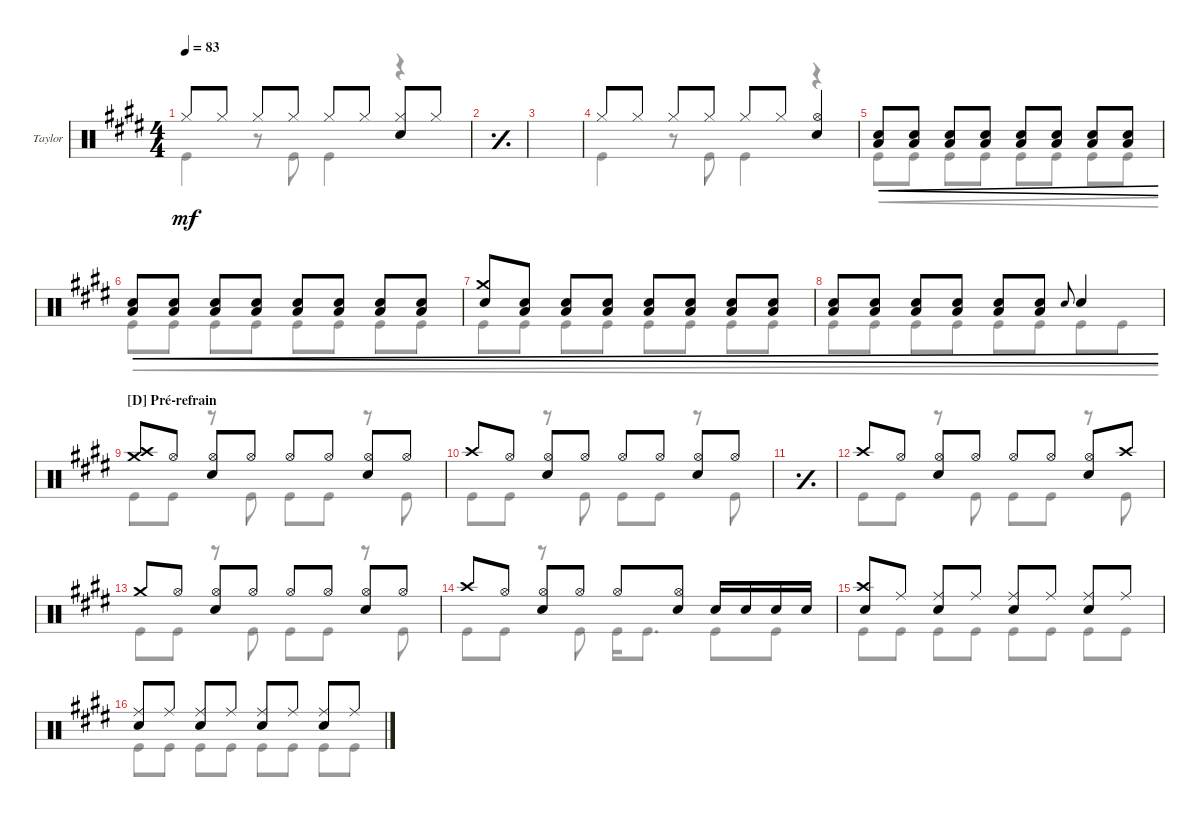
\defaultSystemsLayout 4
\bracketExtendMode groupsimilarinstruments
\firstSystemTrackNameOrientation horizontal
\otherSystemsTrackNameOrientation horizontal
\track ("Drums - Taylor Hawkins" "Taylor") {instrument percussion}
\staff {score}
\articulation defaults
\voice
\ts (4 4)
\tempo 83
\clef neutral
\ks e "Hi-Hat (closed)".8{dy mf} "Hi-Hat (closed)".8 "Hi-Hat (closed)".8 "Hi-Hat (closed)".8 "Hi-Hat (closed)".8 "Hi-Hat (closed)".8
("Hi-Hat (closed)" "Snare (hit) 2").8 "Hi-Hat (closed)".8 |
\simile simple
|
|
\simile none "Hi-Hat (closed)".8 "Hi-Hat (closed)".8 "Hi-Hat (closed)".8 "Hi-Hat (closed)".8 "Hi-Hat (closed)".8 "Hi-Hat (closed)".8
("Hi-Hat (open)" "Snare (hit) 2").4 |
("Low Tom (hit)" "Snare (hit) 2").8{cre} ("Low Tom (hit)" "Snare (hit) 2").8{cre} ("Low Tom (hit)" "Snare (hit) 2").8{cre} ("Low Tom (hit)" "Snare (hit) 2").8{cre} ("Low Tom (hit)" "Snare (hit) 2").8{cre} ("Low Tom (hit)" "Snare (hit) 2").8{cre} ("Low Tom (hit)" "Snare (hit) 2").8{cre} ("Low Tom (hit)" "Snare (hit) 2").8{cre} |
("Low Tom (hit)" "Snare (hit) 2").8{cre} ("Low Tom (hit)" "Snare (hit) 2").8{cre} ("Low Tom (hit)" "Snare (hit) 2").8{cre} ("Low Tom (hit)" "Snare (hit) 2").8{cre} ("Low Tom (hit)" "Snare (hit) 2").8{cre} ("Low Tom (hit)" "Snare (hit) 2").8{cre} ("Low Tom (hit)" "Snare (hit) 2").8{cre} ("Low Tom (hit)" "Snare (hit) 2").8{cre} |
("Snare (hit) 2" "Crash medium (hit)").8{cre} ("Low Tom (hit)" "Snare (hit) 2").8{cre} ("Low Tom (hit)" "Snare (hit) 2").8{cre} ("Low Tom (hit)" "Snare (hit) 2").8{cre} ("Low Tom (hit)" "Snare (hit) 2").8{cre} ("Low Tom (hit)" "Snare (hit) 2").8{cre} ("Low Tom (hit)" "Snare (hit) 2").8{cre} ("Low Tom (hit)" "Snare (hit) 2").8{cre} |
("Low Tom (hit)" "Snare (hit) 2").8{cre} ("Low Tom (hit)" "Snare (hit) 2").8{cre} ("Low Tom (hit)" "Snare (hit) 2").8{cre} ("Low Tom (hit)" "Snare (hit) 2").8{cre} ("Low Tom (hit)" "Snare (hit) 2").8{cre} ("Low Tom (hit)" "Snare (hit) 2").8{cre} "Snare (hit) 2".8{gr onbeat cre} "Snare (hit) 2".4{cre} |
\section ("D" "Pré-refrain")
("Crash high (hit)" "Crash medium (hit)").8 "Hi-Hat (open)".8 ("Hi-Hat (open)" "Snare (hit) 2").8 "Hi-Hat (open)".8 "Hi-Hat (open)".8 "Hi-Hat (open)".8 ("Hi-Hat (open)" "Snare (hit) 2").8 "Hi-Hat (open)".8 |
"Crash high (hit)".8 "Hi-Hat (open)".8 ("Hi-Hat (open)" "Snare (hit) 2").8 "Hi-Hat (open)".8 "Hi-Hat (open)".8 "Hi-Hat (open)".8 ("Hi-Hat (open)" "Snare (hit) 2").8 "Hi-Hat (open)".8 |
\simile simple
|
\simile none "Crash high (hit)".8 "Hi-Hat (open)".8
("Hi-Hat (open)" "Snare (hit) 2").8 "Hi-Hat (open)".8 "Hi-Hat (open)".8 "Hi-Hat (open)".8 ("Hi-Hat (open)" "Snare (hit) 2").8 "Crash high (hit)".8 |
"Crash medium (hit)".8 "Hi-Hat (open)".8 ("Hi-Hat (open)" "Snare (hit) 2").8 "Hi-Hat (open)".8 "Hi-Hat (open)".8 "Hi-Hat (open)".8 ("Hi-Hat (open)" "Snare (hit) 2").8 "Hi-Hat (open)".8 |
"Crash high (hit)".8 "Hi-Hat (open)".8 ("Hi-Hat (open)" "Snare (hit) 2").8 "Hi-Hat (open)".8 "Hi-Hat (open)".8 ("Hi-Hat (open)" "Snare (hit) 2").8 "Snare (hit) 2".16 "Snare (hit) 2".16 "Snare (hit) 2".16 "Snare (hit) 2".16 |
("Snare (hit) 2" "Crash high (hit)").8 "Ride (middle)".8 ("Snare (hit) 2" "Ride (middle)").8 "Ride (middle)".8 ("Snare (hit) 2" "Ride (middle)").8 "Ride (middle)".8 ("Snare (hit) 2" "Ride (middle)").8 "Ride (middle)".8 |
("Snare (hit) 2" "Ride (middle)").8 "Ride (middle)".8 ("Snare (hit) 2" "Ride (middle)").8 "Ride (middle)".8 ("Snare (hit) 2" "Ride (middle)").8 "Ride (middle)".8 ("Snare (hit) 2" "Ride (middle)").8 "Ride (middle)".8
\voice
\clef neutral
\ottava regular
\simile none
\ks e "Kick (hit)".4{dy mf}
r.8 "Kick (hit)".8 "Kick (hit)".4 r.4 |
\simile simple
|
|
\simile none "Kick (hit)".4
r.8 "Kick (hit)".8 "Kick (hit)".4 r.4 |
"Kick (hit)".8{cre} "Kick (hit)".8{cre} "Kick (hit)".8{cre} "Kick (hit)".8{cre} "Kick (hit)".8{cre} "Kick (hit)".8{cre} "Kick (hit)".8{cre} "Kick (hit)".8{cre} |
"Kick (hit)".8{cre} "Kick (hit)".8{cre} "Kick (hit)".8{cre} "Kick (hit)".8{cre} "Kick (hit)".8{cre} "Kick (hit)".8{cre} "Kick (hit)".8{cre} "Kick (hit)".8{cre} |
"Kick (hit)".8{cre} "Kick (hit)".8{cre} "Kick (hit)".8{cre} "Kick (hit)".8{cre} "Kick (hit)".8{cre} "Kick (hit)".8{cre} "Kick (hit)".8{cre} "Kick (hit)".8{cre} |
"Kick (hit)".8{cre} "Kick (hit)".8{cre} "Kick (hit)".8{cre} "Kick (hit)".8{cre} "Kick (hit)".8{cre} "Kick (hit)".8{cre} "Kick (hit)".8{cre} "Kick (hit)".8{cre} |
"Kick (hit)".8 "Kick (hit)".8 r.8 "Kick (hit)".8 "Kick (hit)".8 "Kick (hit)".8 r.8 "Kick (hit)".8 |
"Kick (hit)".8 "Kick (hit)".8 r.8 "Kick (hit)".8 "Kick (hit)".8 "Kick (hit)".8 r.8 "Kick (hit)".8 |
\simile simple
|
\simile none "Kick (hit)".8 "Kick (hit)".8
r.8 "Kick (hit)".8 "Kick (hit)".8 "Kick (hit)".8 r.8 "Kick (hit)".8 |
"Kick (hit)".8 "Kick (hit)".8 r.8 "Kick (hit)".8 "Kick (hit)".8 "Kick (hit)".8 r.8 "Kick (hit)".8 |
"Kick (hit)".8 "Kick (hit)".8 r.8 "Kick (hit)".8 "Kick (hit)".16 "Kick (hit)".8{d} "Kick (hit)".8 "Kick (hit)".8 |
"Kick (hit)".8 "Kick (hit)".8 "Kick (hit)".8 "Kick (hit)".8 "Kick (hit)".8 "Kick (hit)".8 "Kick (hit)".8 "Kick (hit)".8 |
"Kick (hit)".8 "Kick (hit)".8 "Kick (hit)".8 "Kick (hit)".8 "Kick (hit)".8 "Kick (hit)".8 "Kick (hit)".8 "Kick (hit)".8
